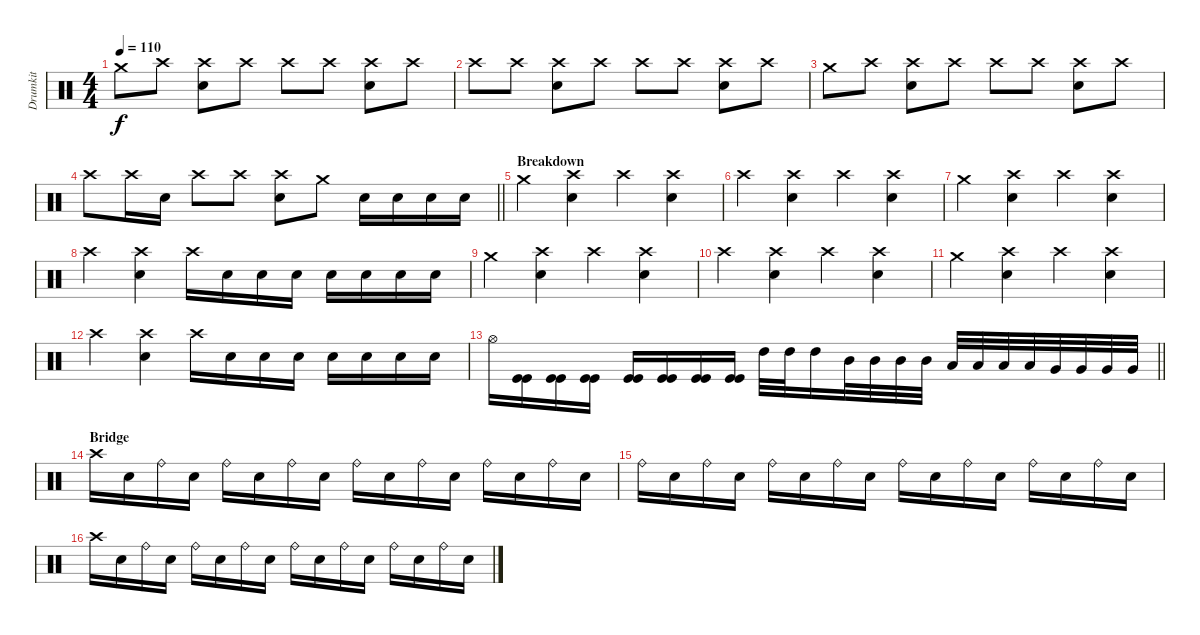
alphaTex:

\track ("Drumkit" "Drumkit") {instrument percussion}
\staff {score}
\articulation defaults
\ts (4 4)
\tempo 110
\clef neutral
\ks c "Crash medium (hit)".8{dy f} "Crash high (hit)".8
("Crash high (hit)" "Electric Snare (hit)").8 "Crash high (hit)".8 "Crash high (hit)".8 "Crash high (hit)".8 ("Crash high (hit)" "Electric Snare (hit)").8 "Crash high (hit)".8 |
"Crash high (hit)".8 "Crash high (hit)".8 ("Crash high (hit)" "Electric Snare (hit)").8 "Crash high (hit)".8 "Crash high (hit)".8 "Crash high (hit)".8 ("Crash high (hit)" "Electric Snare (hit)").8 "Crash high (hit)".8 |
"Crash medium (hit)".8 "Crash high (hit)".8 ("Crash high (hit)" "Electric Snare (hit)").8 "Crash high (hit)".8 "Crash high (hit)".8 "Crash high (hit)".8 ("Crash high (hit)" "Electric Snare (hit)").8 "Crash high (hit)".8 |
\barLineRight lightlight "Crash high (hit)".8 "Crash high (hit)".16 "Electric Snare (hit)".16 "Crash high (hit)".8 "Crash high (hit)".8
("Crash high (hit)" "Electric Snare (hit)").8 "Crash medium (hit)".8 "Electric Snare (hit)".16 "Electric Snare (hit)".16 "Electric Snare (hit)".16 "Electric Snare (hit)".16 |
\section ("" "Breakdown")
"Crash medium (hit)".4 ("Crash high (hit)" "Electric Snare (hit)").4 "Crash high (hit)".4 ("Crash high (hit)" "Electric Snare (hit)").4 |
"Crash high (hit)".4 ("Crash high (hit)" "Electric Snare (hit)").4 "Crash high (hit)".4 ("Crash high (hit)" "Electric Snare (hit)").4 |
"Crash medium (hit)".4 ("Crash high (hit)" "Electric Snare (hit)").4 "Crash high (hit)".4 ("Crash high (hit)" "Electric Snare (hit)").4 |
"Crash high (hit)".4 ("Crash high (hit)" "Electric Snare (hit)").4 "Crash high (hit)".16 "Electric Snare (hit)".16 "Electric Snare (hit)".16 "Electric Snare (hit)".16 "Electric Snare (hit)".16 "Electric Snare (hit)".16 "Electric Snare (hit)".16 "Electric Snare (hit)".16 |
"Crash medium (hit)".4 ("Crash high (hit)" "Electric Snare (hit)").4 "Crash high (hit)".4 ("Crash high (hit)" "Electric Snare (hit)").4 |
"Crash high (hit)".4 ("Crash high (hit)" "Electric Snare (hit)").4 "Crash high (hit)".4 ("Crash high (hit)" "Electric Snare (hit)").4 |
"Crash medium (hit)".4 ("Crash high (hit)" "Electric Snare (hit)").4 "Crash high (hit)".4 ("Crash high (hit)" "Electric Snare (hit)").4 |
"Crash high (hit)".4 ("Crash high (hit)" "Electric Snare (hit)").4 "Crash high (hit)".16 "Electric Snare (hit)".16 "Electric Snare (hit)".16 "Electric Snare (hit)".16 "Electric Snare (hit)".16 "Electric Snare (hit)".16 "Electric Snare (hit)".16 "Electric Snare (hit)".16 |
\barLineRight lightlight "Hi-Hat (open)".16
("Kick (hit)" "Kick (hit)").16 ("Kick (hit)" "Kick (hit)").16 ("Kick (hit)" "Kick (hit)").16 ("Kick (hit)" "Kick (hit)").16 ("Kick (hit)" "Kick (hit)").16 ("Kick (hit)" "Kick (hit)").16 ("Kick (hit)" "Kick (hit)").16 "High Tom (hit)".32 "High Tom (hit)".32 "High Tom (hit)".16 "Mid Tom (hit)".32 "Mid Tom (hit)".32 "Mid Tom (hit)".32 "Mid Tom (hit)".32 "Low Tom (hit)".32 "Low Tom (hit)".32 "Low Tom (hit)".32 "Low Tom (hit)".32 "Very Low Tom (hit)".32 "Very Low Tom (hit)".32 "Very Low Tom (hit)".32 "Very Low Tom (hit)".32 |
\section ("" "Bridge")
"Crash high (hit)".16 "Electric Snare (hit)".16 "Ride (bell)".16 "Electric Snare (hit)".16 "Ride (bell)".16 "Electric Snare (hit)".16 "Ride (bell)".16 "Electric Snare (hit)".16 "Ride (bell)".16 "Electric Snare (hit)".16 "Ride (bell)".16 "Electric Snare (hit)".16 "Ride (bell)".16 "Electric Snare (hit)".16 "Ride (bell)".16 "Electric Snare (hit)".16 |
"Ride (bell)".16 "Electric Snare (hit)".16 "Ride (bell)".16 "Electric Snare (hit)".16 "Ride (bell)".16 "Electric Snare (hit)".16 "Ride (bell)".16 "Electric Snare (hit)".16 "Ride (bell)".16 "Electric Snare (hit)".16 "Ride (bell)".16 "Electric Snare (hit)".16 "Ride (bell)".16 "Electric Snare (hit)".16 "Ride (bell)".16 "Electric Snare (hit)".16 |
"Crash high (hit)".16 "Electric Snare (hit)".16 "Ride (bell)".16 "Electric Snare (hit)".16 "Ride (bell)".16 "Electric Snare (hit)".16 "Ride (bell)".16 "Electric Snare (hit)".16 "Ride (bell)".16 "Electric Snare (hit)".16 "Ride (bell)".16 "Electric Snare (hit)".16 "Ride (bell)".16 "Electric Snare (hit)".16 "Ride (bell)".16 "Electric Snare (hit)".16
